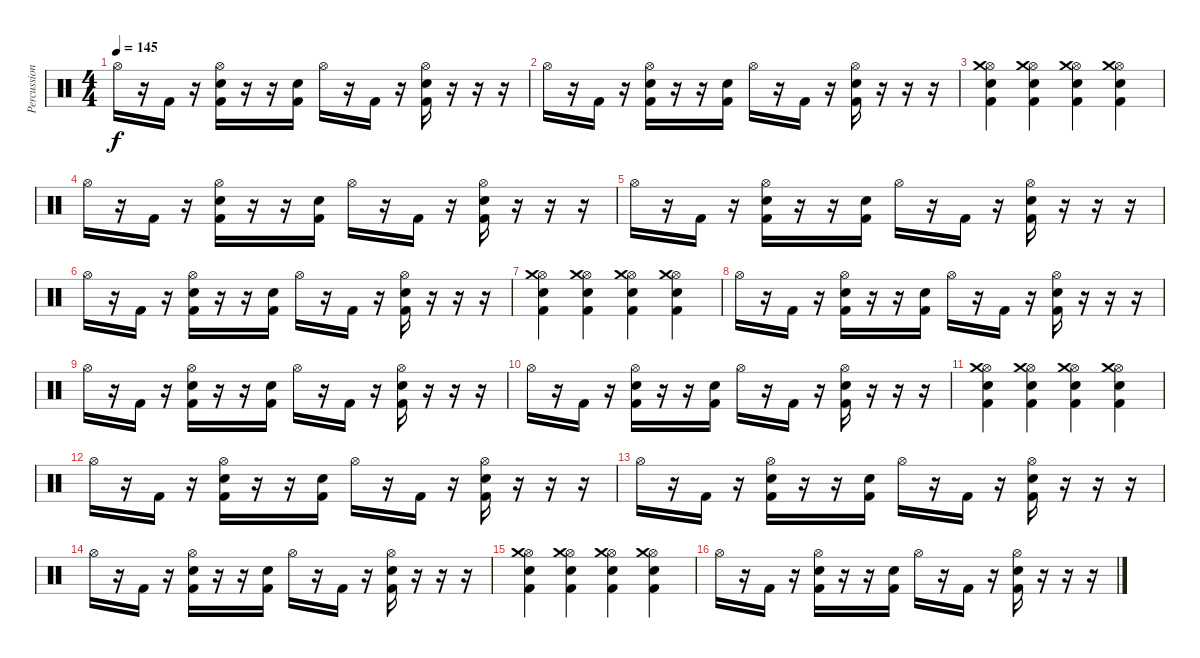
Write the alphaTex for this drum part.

\track ("Percussions" "Percussion") {instrument percussion}
\staff {score}
\articulation defaults
\ts (4 4)
\tempo 145
\clef neutral
\ks c "Hi-Hat (open)".16{dy f}
r.16 "Kick (hit) 2".16 r.16 ("Hi-Hat (open)" "Electric Snare (hit)" "Kick (hit) 2").16 r.16 r.16 ("Electric Snare (hit)" "Kick (hit) 2").16 "Hi-Hat (open)".16 r.16 "Kick (hit) 2".16 r.16 ("Hi-Hat (open)" "Electric Snare (hit)" "Kick (hit) 2").16 r.16 r.16 r.16 |
"Hi-Hat (open)".16 r.16 "Kick (hit) 2".16 r.16 ("Hi-Hat (open)" "Electric Snare (hit)" "Kick (hit) 2").16 r.16 r.16 ("Electric Snare (hit)" "Kick (hit) 2").16 "Hi-Hat (open)".16 r.16 "Kick (hit) 2".16 r.16 ("Hi-Hat (open)" "Electric Snare (hit)" "Kick (hit) 2").16 r.16 r.16 r.16 |
("Hi-Hat (open)" "Electric Snare (hit)" "Crash medium (hit)" "Kick (hit) 2").4 ("Hi-Hat (open)" "Electric Snare (hit)" "Crash medium (hit)" "Kick (hit) 2").4 ("Hi-Hat (open)" "Electric Snare (hit)" "Crash medium (hit)" "Kick (hit) 2").4 ("Hi-Hat (open)" "Electric Snare (hit)" "Crash medium (hit)" "Kick (hit) 2").4 |
"Hi-Hat (open)".16 r.16 "Kick (hit) 2".16 r.16 ("Hi-Hat (open)" "Electric Snare (hit)" "Kick (hit) 2").16 r.16 r.16 ("Electric Snare (hit)" "Kick (hit) 2").16 "Hi-Hat (open)".16 r.16 "Kick (hit) 2".16 r.16 ("Hi-Hat (open)" "Electric Snare (hit)" "Kick (hit) 2").16 r.16 r.16 r.16 |
"Hi-Hat (open)".16 r.16 "Kick (hit) 2".16 r.16 ("Hi-Hat (open)" "Electric Snare (hit)" "Kick (hit) 2").16 r.16 r.16 ("Electric Snare (hit)" "Kick (hit) 2").16 "Hi-Hat (open)".16 r.16 "Kick (hit) 2".16 r.16 ("Hi-Hat (open)" "Electric Snare (hit)" "Kick (hit) 2").16 r.16 r.16 r.16 |
"Hi-Hat (open)".16 r.16 "Kick (hit) 2".16 r.16 ("Hi-Hat (open)" "Electric Snare (hit)" "Kick (hit) 2").16 r.16 r.16 ("Electric Snare (hit)" "Kick (hit) 2").16 "Hi-Hat (open)".16 r.16 "Kick (hit) 2".16 r.16 ("Hi-Hat (open)" "Electric Snare (hit)" "Kick (hit) 2").16 r.16 r.16 r.16 |
("Hi-Hat (open)" "Electric Snare (hit)" "Crash medium (hit)" "Kick (hit) 2").4 ("Hi-Hat (open)" "Electric Snare (hit)" "Crash medium (hit)" "Kick (hit) 2").4 ("Hi-Hat (open)" "Electric Snare (hit)" "Crash medium (hit)" "Kick (hit) 2").4 ("Hi-Hat (open)" "Electric Snare (hit)" "Crash medium (hit)" "Kick (hit) 2").4 |
"Hi-Hat (open)".16 r.16 "Kick (hit) 2".16 r.16 ("Hi-Hat (open)" "Electric Snare (hit)" "Kick (hit) 2").16 r.16 r.16 ("Electric Snare (hit)" "Kick (hit) 2").16 "Hi-Hat (open)".16 r.16 "Kick (hit) 2".16 r.16 ("Hi-Hat (open)" "Electric Snare (hit)" "Kick (hit) 2").16 r.16 r.16 r.16 |
"Hi-Hat (open)".16 r.16 "Kick (hit) 2".16 r.16 ("Hi-Hat (open)" "Electric Snare (hit)" "Kick (hit) 2").16 r.16 r.16 ("Electric Snare (hit)" "Kick (hit) 2").16 "Hi-Hat (open)".16 r.16 "Kick (hit) 2".16 r.16 ("Hi-Hat (open)" "Electric Snare (hit)" "Kick (hit) 2").16 r.16 r.16 r.16 |
"Hi-Hat (open)".16 r.16 "Kick (hit) 2".16 r.16 ("Hi-Hat (open)" "Electric Snare (hit)" "Kick (hit) 2").16 r.16 r.16 ("Electric Snare (hit)" "Kick (hit) 2").16 "Hi-Hat (open)".16 r.16 "Kick (hit) 2".16 r.16 ("Hi-Hat (open)" "Electric Snare (hit)" "Kick (hit) 2").16 r.16 r.16 r.16 |
("Hi-Hat (open)" "Electric Snare (hit)" "Crash medium (hit)" "Kick (hit) 2").4 ("Hi-Hat (open)" "Electric Snare (hit)" "Crash medium (hit)" "Kick (hit) 2").4 ("Hi-Hat (open)" "Electric Snare (hit)" "Crash medium (hit)" "Kick (hit) 2").4 ("Hi-Hat (open)" "Electric Snare (hit)" "Crash medium (hit)" "Kick (hit) 2").4 |
"Hi-Hat (open)".16 r.16 "Kick (hit) 2".16 r.16 ("Hi-Hat (open)" "Electric Snare (hit)" "Kick (hit) 2").16 r.16 r.16 ("Electric Snare (hit)" "Kick (hit) 2").16 "Hi-Hat (open)".16 r.16 "Kick (hit) 2".16 r.16 ("Hi-Hat (open)" "Electric Snare (hit)" "Kick (hit) 2").16 r.16 r.16 r.16 |
"Hi-Hat (open)".16 r.16 "Kick (hit) 2".16 r.16 ("Hi-Hat (open)" "Electric Snare (hit)" "Kick (hit) 2").16 r.16 r.16 ("Electric Snare (hit)" "Kick (hit) 2").16 "Hi-Hat (open)".16 r.16 "Kick (hit) 2".16 r.16 ("Hi-Hat (open)" "Electric Snare (hit)" "Kick (hit) 2").16 r.16 r.16 r.16 |
"Hi-Hat (open)".16 r.16 "Kick (hit) 2".16 r.16 ("Hi-Hat (open)" "Electric Snare (hit)" "Kick (hit) 2").16 r.16 r.16 ("Electric Snare (hit)" "Kick (hit) 2").16 "Hi-Hat (open)".16 r.16 "Kick (hit) 2".16 r.16 ("Hi-Hat (open)" "Electric Snare (hit)" "Kick (hit) 2").16 r.16 r.16 r.16 |
("Hi-Hat (open)" "Electric Snare (hit)" "Crash medium (hit)" "Kick (hit) 2").4 ("Hi-Hat (open)" "Electric Snare (hit)" "Crash medium (hit)" "Kick (hit) 2").4 ("Hi-Hat (open)" "Electric Snare (hit)" "Crash medium (hit)" "Kick (hit) 2").4 ("Hi-Hat (open)" "Electric Snare (hit)" "Crash medium (hit)" "Kick (hit) 2").4 |
"Hi-Hat (open)".16 r.16 "Kick (hit) 2".16 r.16 ("Hi-Hat (open)" "Electric Snare (hit)" "Kick (hit) 2").16 r.16 r.16 ("Electric Snare (hit)" "Kick (hit) 2").16 "Hi-Hat (open)".16 r.16 "Kick (hit) 2".16 r.16 ("Hi-Hat (open)" "Electric Snare (hit)" "Kick (hit) 2").16 r.16 r.16 r.16
